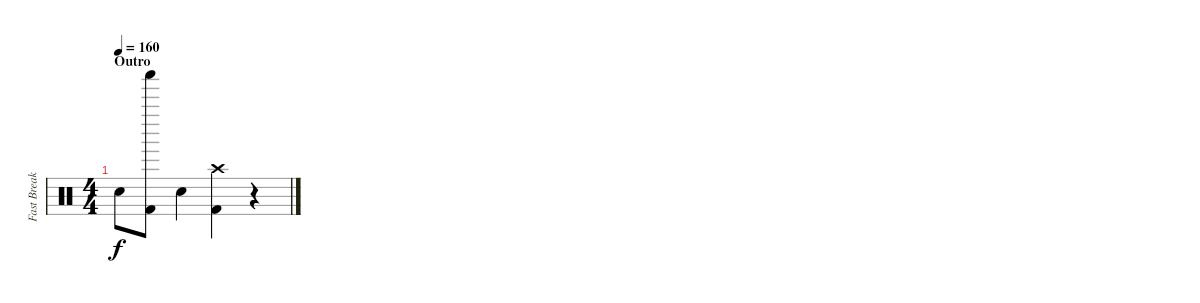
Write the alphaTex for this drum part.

\track ("Fast Break Drums" "Fast Break") {instrument percussion}
\staff {score}
\articulation defaults
\ts (4 4)
\section ("" "Outro")
\tempo 160
\clef neutral
\ks c "Snare (hit) 2".8{dy f}
("Kick (hit) 2" "Shaker (hit)").8 "Snare (hit) 2".4 ("Kick (hit) 2" "Crash high (hit)").4 r.4
